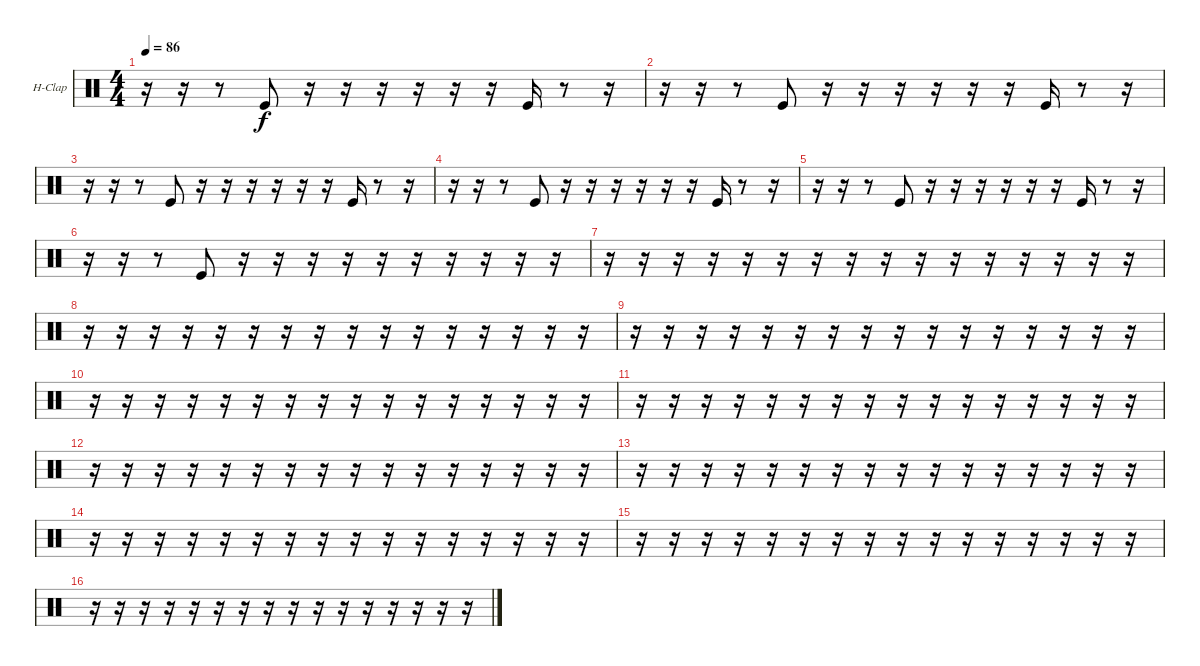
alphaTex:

\defaultSystemsLayout 4
\bracketExtendMode groupsimilarinstruments
\firstSystemTrackNameOrientation horizontal
\otherSystemsTrackNameOrientation horizontal
\track ("Hand Clap" "H-Clap") {instrument percussion}
\staff {score}
\articulation defaults
\ts (4 4)
\tempo 86
\clef neutral
\scale
0.333333
\ks c
r.16{dy f} r.16 r.8 "Kick (hit)".8 r.16 r.16 r.16 r.16 r.16 r.16 "Kick (hit)".16 r.8 r.16 |
\scale
0.333333 r.16 r.16 r.8 "Kick (hit)".8 r.16 r.16 r.16 r.16 r.16 r.16 "Kick (hit)".16 r.8 r.16 |
\scale
0.333333 r.16 r.16 r.8 "Kick (hit)".8 r.16 r.16 r.16 r.16 r.16 r.16 "Kick (hit)".16 r.8 r.16 |
\scale
0.333333 r.16 r.16 r.8 "Kick (hit)".8 r.16 r.16 r.16 r.16 r.16 r.16 "Kick (hit)".16 r.8 r.16 |
\scale
0.333333 r.16 r.16 r.8 "Kick (hit)".8 r.16 r.16 r.16 r.16 r.16 r.16 "Kick (hit)".16 r.8 r.16 |
\scale
0.333333 r.16 r.16 r.8 "Kick (hit)".8 r.16 r.16 r.16 r.16 r.16 r.16 r.16 r.16 r.16 r.16 |
\scale
0.333333 r.16 r.16 r.16 r.16 r.16 r.16 r.16 r.16 r.16 r.16 r.16 r.16 r.16 r.16 r.16 r.16 |
\scale
0.333333 r.16 r.16 r.16 r.16 r.16 r.16 r.16 r.16 r.16 r.16 r.16 r.16 r.16 r.16 r.16 r.16 |
\scale
0.333333 r.16 r.16 r.16 r.16 r.16 r.16 r.16 r.16 r.16 r.16 r.16 r.16 r.16 r.16 r.16 r.16 |
\scale
0.333333 r.16 r.16 r.16 r.16 r.16 r.16 r.16 r.16 r.16 r.16 r.16 r.16 r.16 r.16 r.16 r.16 |
\scale
0.333333 r.16 r.16 r.16 r.16 r.16 r.16 r.16 r.16 r.16 r.16 r.16 r.16 r.16 r.16 r.16 r.16 |
\scale
0.333333 r.16 r.16 r.16 r.16 r.16 r.16 r.16 r.16 r.16 r.16 r.16 r.16 r.16 r.16 r.16 r.16 |
\scale
0.333333 r.16 r.16 r.16 r.16 r.16 r.16 r.16 r.16 r.16 r.16 r.16 r.16 r.16 r.16 r.16 r.16 |
\scale
0.333333 r.16 r.16 r.16 r.16 r.16 r.16 r.16 r.16 r.16 r.16 r.16 r.16 r.16 r.16 r.16 r.16 |
\scale
0.333333 r.16 r.16 r.16 r.16 r.16 r.16 r.16 r.16 r.16 r.16 r.16 r.16 r.16 r.16 r.16 r.16 |
\scale
0.333333 r.16 r.16 r.16 r.16 r.16 r.16 r.16 r.16 r.16 r.16 r.16 r.16 r.16 r.16 r.16 r.16
